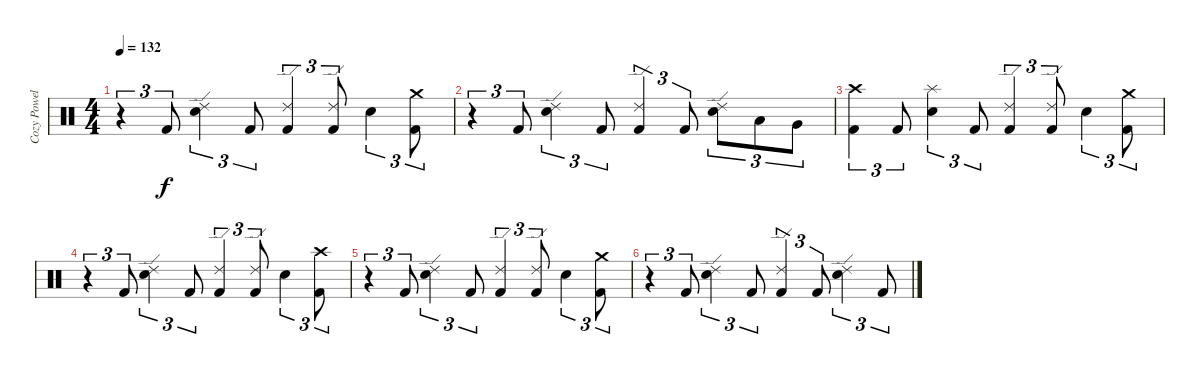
\track ("Cozy Powell" "Cozy Powel") {instrument percussion}
\staff {score}
\articulation defaults
\ts (4 4)
\tempo 132
\clef neutral
\ks c
r.4{tu (3 2) dy f} "Kick (hit) 2".8{tu (3 2)} ("Ride (edge) 2" "Snare (hit) 2").4{tu (3 2)} "Kick (hit) 2".8{tu (3 2)} ("Ride (edge) 2" "Kick (hit) 2").4{tu (3 2)} ("Ride (edge) 2" "Kick (hit) 2").8{tu (3 2)} "Snare (hit) 2".4{tu (3 2)} ("Crash medium (hit)" "Kick (hit) 2").8{tu (3 2)} |
r.4{tu (3 2)} "Kick (hit) 2".8{tu (3 2)} ("Ride (edge) 2" "Snare (hit) 2").4{tu (3 2)} "Kick (hit) 2".8{tu (3 2)} ("Ride (edge) 2" "Kick (hit) 2").4{tu (3 2)} "Kick (hit) 2".8{tu (3 2)} ("Ride (edge) 2" "Snare (hit) 2").8{tu (3 2)} "Low Tom (hit)".8{tu (3 2)} "Very Low Tom (hit)".8{tu (3 2)} |
("Crash high (hit)" "Kick (hit) 2").4{tu (3 2) volume 0} "Kick (hit) 2".8{tu (3 2)} ("Splash (hit)" "Snare (hit) 2").4{tu (3 2)} "Kick (hit) 2".8{tu (3 2)} ("Ride (edge) 2" "Kick (hit) 2").4{tu (3 2)} ("Ride (edge) 2" "Kick (hit) 2").8{tu (3 2)} "Snare (hit) 2".4{tu (3 2)} ("Crash medium (hit)" "Kick (hit) 2").8{tu (3 2)} |
r.4{tu (3 2)} "Kick (hit) 2".8{tu (3 2)} ("Ride (edge) 2" "Snare (hit) 2").4{tu (3 2)} "Kick (hit) 2".8{tu (3 2)} ("Ride (edge) 2" "Kick (hit) 2").4{tu (3 2)} ("Ride (edge) 2" "Kick (hit) 2").8{tu (3 2)} "Snare (hit) 2".4{tu (3 2)} ("Crash high (hit)" "Kick (hit) 2").8{tu (3 2)} |
r.4{tu (3 2)} "Kick (hit) 2".8{tu (3 2)} ("Ride (edge) 2" "Snare (hit) 2").4{tu (3 2)} "Kick (hit) 2".8{tu (3 2)} ("Ride (edge) 2" "Kick (hit) 2").4{tu (3 2)} ("Ride (edge) 2" "Kick (hit) 2").8{tu (3 2)} "Snare (hit) 2".4{tu (3 2)} ("Crash medium (hit)" "Kick (hit) 2").8{tu (3 2)} |
r.4{tu (3 2)} "Kick (hit) 2".8{tu (3 2)} ("Ride (edge) 2" "Snare (hit) 2").4{tu (3 2)} "Kick (hit) 2".8{tu (3 2)} ("Ride (edge) 2" "Kick (hit) 2").4{tu (3 2)} "Kick (hit) 2".8{tu (3 2)} ("Ride (edge) 2" "Snare (hit) 2").4{tu (3 2)} "Kick (hit) 2".8{tu (3 2)}
